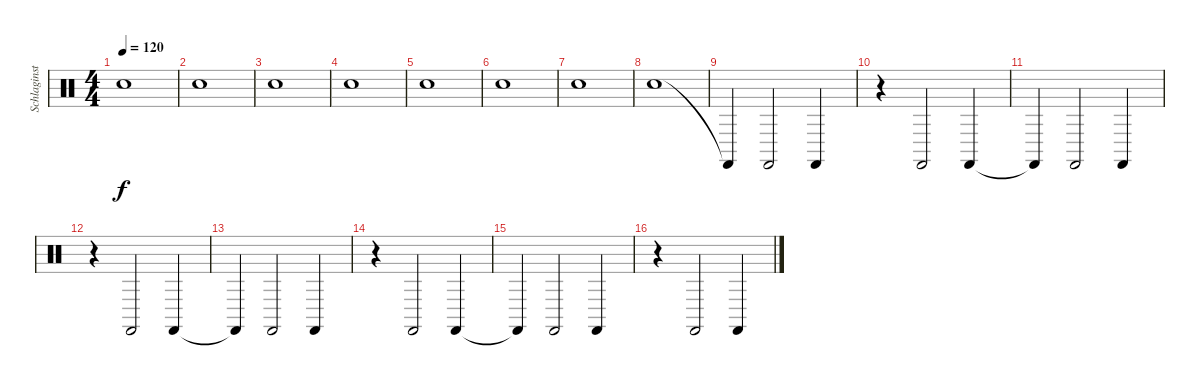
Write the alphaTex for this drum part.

\track ("Schlaginstrumente - Auswahl" "Schlaginst") {instrument percussion}
\staff {score}
\articulation defaults
\ts (4 4)
\tempo 120
\clef neutral
\ks c "Hand Clap (hit)".1{dy f}
|
"Hand Clap (hit)".1 |
"Hand Clap (hit)".1 |
"Hand Clap (hit)".1 |
"Hand Clap (hit)".1 |
"Hand Clap (hit)".1 |
"Hand Clap (hit)".1 |
"Hand Clap (hit)".1 |
"Castanets (hit)"{t}.4 "Castanets (hit)".2 "Castanets (hit)".4 |
r.4 "Castanets (hit)".2 "Castanets (hit)".4 |
"Castanets (hit)"{t}.4 "Castanets (hit)".2 "Castanets (hit)".4 |
r.4 "Castanets (hit)".2 "Castanets (hit)".4 |
"Castanets (hit)"{t}.4 "Castanets (hit)".2 "Castanets (hit)".4 |
r.4 "Castanets (hit)".2 "Castanets (hit)".4 |
"Castanets (hit)"{t}.4 "Castanets (hit)".2 "Castanets (hit)".4 |
r.4 "Castanets (hit)".2 "Castanets (hit)".4
